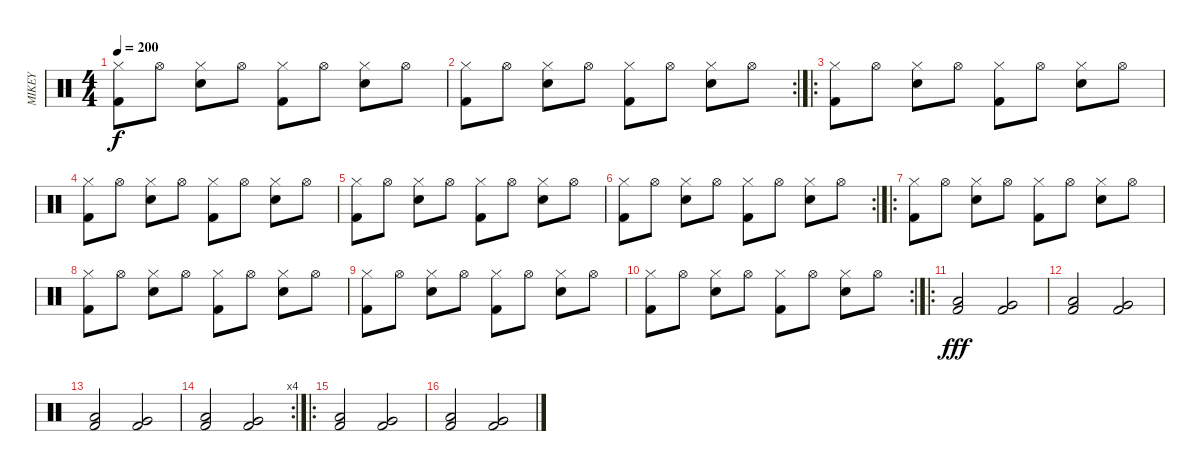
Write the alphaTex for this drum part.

\track ("MIKEY" "MIKEY") {instrument percussion}
\staff {score}
\articulation defaults
\ts (4 4)
\tempo 200
\clef neutral
\ks c
("Hi-Hat (closed)" "Kick (hit) 2").8{dy f} "Hi-Hat (open)".8 ("Hi-Hat (closed)" "Snare (hit) 2").8 "Hi-Hat (open)".8 ("Hi-Hat (closed)" "Kick (hit) 2").8 "Hi-Hat (open)".8 ("Hi-Hat (closed)" "Snare (hit) 2").8 "Hi-Hat (open)".8 |
\rc 2
("Hi-Hat (closed)" "Kick (hit) 2").8 "Hi-Hat (open)".8 ("Hi-Hat (closed)" "Snare (hit) 2").8 "Hi-Hat (open)".8 ("Hi-Hat (closed)" "Kick (hit) 2").8 "Hi-Hat (open)".8 ("Hi-Hat (closed)" "Snare (hit) 2").8 "Hi-Hat (open)".8 |
\ro
("Hi-Hat (closed)" "Kick (hit) 2").8 "Hi-Hat (open)".8 ("Hi-Hat (closed)" "Snare (hit) 2").8 "Hi-Hat (open)".8 ("Hi-Hat (closed)" "Kick (hit) 2").8 "Hi-Hat (open)".8 ("Hi-Hat (closed)" "Snare (hit) 2").8 "Hi-Hat (open)".8 |
("Hi-Hat (closed)" "Kick (hit) 2").8 "Hi-Hat (open)".8 ("Hi-Hat (closed)" "Snare (hit) 2").8 "Hi-Hat (open)".8 ("Hi-Hat (closed)" "Kick (hit) 2").8 "Hi-Hat (open)".8 ("Hi-Hat (closed)" "Snare (hit) 2").8 "Hi-Hat (open)".8 |
("Hi-Hat (closed)" "Kick (hit) 2").8 "Hi-Hat (open)".8 ("Hi-Hat (closed)" "Snare (hit) 2").8 "Hi-Hat (open)".8 ("Hi-Hat (closed)" "Kick (hit) 2").8 "Hi-Hat (open)".8 ("Hi-Hat (closed)" "Snare (hit) 2").8 "Hi-Hat (open)".8 |
\rc 2
("Hi-Hat (closed)" "Kick (hit) 2").8 "Hi-Hat (open)".8 ("Hi-Hat (closed)" "Snare (hit) 2").8 "Hi-Hat (open)".8 ("Hi-Hat (closed)" "Kick (hit) 2").8 "Hi-Hat (open)".8 ("Hi-Hat (closed)" "Snare (hit) 2").8 "Hi-Hat (open)".8 |
\ro
("Hi-Hat (closed)" "Kick (hit) 2").8 "Hi-Hat (open)".8 ("Hi-Hat (closed)" "Snare (hit) 2").8 "Hi-Hat (open)".8 ("Hi-Hat (closed)" "Kick (hit) 2").8 "Hi-Hat (open)".8 ("Hi-Hat (closed)" "Snare (hit) 2").8 "Hi-Hat (open)".8 |
("Hi-Hat (closed)" "Kick (hit) 2").8 "Hi-Hat (open)".8 ("Hi-Hat (closed)" "Snare (hit) 2").8 "Hi-Hat (open)".8 ("Hi-Hat (closed)" "Kick (hit) 2").8 "Hi-Hat (open)".8 ("Hi-Hat (closed)" "Snare (hit) 2").8 "Hi-Hat (open)".8 |
("Hi-Hat (closed)" "Kick (hit) 2").8 "Hi-Hat (open)".8 ("Hi-Hat (closed)" "Snare (hit) 2").8 "Hi-Hat (open)".8 ("Hi-Hat (closed)" "Kick (hit) 2").8 "Hi-Hat (open)".8 ("Hi-Hat (closed)" "Snare (hit) 2").8 "Hi-Hat (open)".8 |
\rc 2
("Hi-Hat (closed)" "Kick (hit) 2").8 "Hi-Hat (open)".8 ("Hi-Hat (closed)" "Snare (hit) 2").8 "Hi-Hat (open)".8 ("Hi-Hat (closed)" "Kick (hit) 2").8 "Hi-Hat (open)".8 ("Hi-Hat (closed)" "Snare (hit) 2").8 "Hi-Hat (open)".8 |
\ro
("Kick (hit) 2" "Low Floor Tom (hit)").2{dy fff} ("Kick (hit) 2" "Very Low Tom (hit)").2 |
("Kick (hit) 2" "Low Floor Tom (hit)").2 ("Kick (hit) 2" "Very Low Tom (hit)").2 |
("Kick (hit) 2" "Low Floor Tom (hit)").2 ("Kick (hit) 2" "Very Low Tom (hit)").2 |
\rc 4
("Kick (hit) 2" "Low Floor Tom (hit)").2 ("Kick (hit) 2" "Very Low Tom (hit)").2 |
\ro
("Kick (hit) 2" "Low Floor Tom (hit)").2 ("Kick (hit) 2" "Very Low Tom (hit)").2 |
("Kick (hit) 2" "Low Floor Tom (hit)").2 ("Kick (hit) 2" "Very Low Tom (hit)").2
